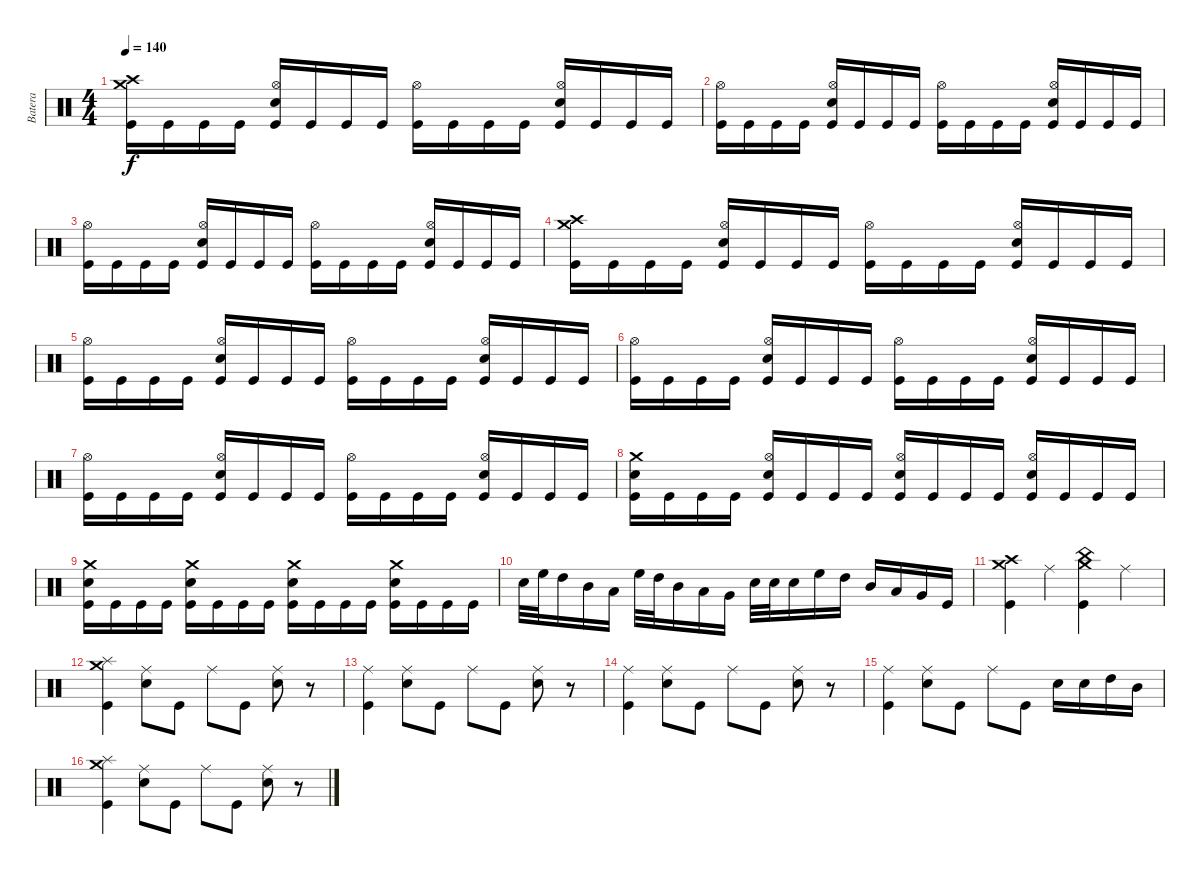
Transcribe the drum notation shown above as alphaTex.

\track ("Batera" "Batera") {instrument percussion}
\staff {score}
\articulation defaults
\ts (4 4)
\tempo 140
\clef neutral
\ks c
("Crash high (hit)" "Crash medium (hit)" "Kick (hit)").16{dy f} "Kick (hit)".16 "Kick (hit)".16 "Kick (hit)".16 ("Hi-Hat (open)" "Snare (hit) 2" "Kick (hit)").16 "Kick (hit)".16 "Kick (hit)".16 "Kick (hit)".16 ("Hi-Hat (open)" "Kick (hit)").16 "Kick (hit)".16 "Kick (hit)".16 "Kick (hit)".16 ("Hi-Hat (open)" "Snare (hit) 2" "Kick (hit)").16 "Kick (hit)".16 "Kick (hit)".16 "Kick (hit)".16 |
("Hi-Hat (open)" "Kick (hit)").16 "Kick (hit)".16 "Kick (hit)".16 "Kick (hit)".16 ("Hi-Hat (open)" "Snare (hit) 2" "Kick (hit)").16 "Kick (hit)".16 "Kick (hit)".16 "Kick (hit)".16 ("Hi-Hat (open)" "Kick (hit)").16 "Kick (hit)".16 "Kick (hit)".16 "Kick (hit)".16 ("Hi-Hat (open)" "Snare (hit) 2" "Kick (hit)").16 "Kick (hit)".16 "Kick (hit)".16 "Kick (hit)".16 |
("Hi-Hat (open)" "Kick (hit)").16 "Kick (hit)".16 "Kick (hit)".16 "Kick (hit)".16 ("Hi-Hat (open)" "Snare (hit) 2" "Kick (hit)").16 "Kick (hit)".16 "Kick (hit)".16 "Kick (hit)".16 ("Hi-Hat (open)" "Kick (hit)").16 "Kick (hit)".16 "Kick (hit)".16 "Kick (hit)".16 ("Hi-Hat (open)" "Snare (hit) 2" "Kick (hit)").16 "Kick (hit)".16 "Kick (hit)".16 "Kick (hit)".16 |
("Crash high (hit)" "Crash medium (hit)" "Kick (hit)").16 "Kick (hit)".16 "Kick (hit)".16 "Kick (hit)".16 ("Hi-Hat (open)" "Snare (hit) 2" "Kick (hit)").16 "Kick (hit)".16 "Kick (hit)".16 "Kick (hit)".16 ("Hi-Hat (open)" "Kick (hit)").16 "Kick (hit)".16 "Kick (hit)".16 "Kick (hit)".16 ("Hi-Hat (open)" "Snare (hit) 2" "Kick (hit)").16 "Kick (hit)".16 "Kick (hit)".16 "Kick (hit)".16 |
("Hi-Hat (open)" "Kick (hit)").16 "Kick (hit)".16 "Kick (hit)".16 "Kick (hit)".16 ("Hi-Hat (open)" "Snare (hit) 2" "Kick (hit)").16 "Kick (hit)".16 "Kick (hit)".16 "Kick (hit)".16 ("Hi-Hat (open)" "Kick (hit)").16 "Kick (hit)".16 "Kick (hit)".16 "Kick (hit)".16 ("Hi-Hat (open)" "Snare (hit) 2" "Kick (hit)").16 "Kick (hit)".16 "Kick (hit)".16 "Kick (hit)".16 |
("Hi-Hat (open)" "Kick (hit)").16 "Kick (hit)".16 "Kick (hit)".16 "Kick (hit)".16 ("Hi-Hat (open)" "Snare (hit) 2" "Kick (hit)").16 "Kick (hit)".16 "Kick (hit)".16 "Kick (hit)".16 ("Hi-Hat (open)" "Kick (hit)").16 "Kick (hit)".16 "Kick (hit)".16 "Kick (hit)".16 ("Hi-Hat (open)" "Snare (hit) 2" "Kick (hit)").16 "Kick (hit)".16 "Kick (hit)".16 "Kick (hit)".16 |
("Hi-Hat (open)" "Kick (hit)").16 "Kick (hit)".16 "Kick (hit)".16 "Kick (hit)".16 ("Hi-Hat (open)" "Snare (hit) 2" "Kick (hit)").16 "Kick (hit)".16 "Kick (hit)".16 "Kick (hit)".16 ("Hi-Hat (open)" "Kick (hit)").16 "Kick (hit)".16 "Kick (hit)".16 "Kick (hit)".16 ("Hi-Hat (open)" "Snare (hit) 2" "Kick (hit)").16 "Kick (hit)".16 "Kick (hit)".16 "Kick (hit)".16 |
("Crash medium (hit)" "Snare (hit) 2" "Kick (hit)").16 "Kick (hit)".16 "Kick (hit)".16 "Kick (hit)".16 ("Hi-Hat (open)" "Snare (hit) 2" "Kick (hit)").16 "Kick (hit)".16 "Kick (hit)".16 "Kick (hit)".16 ("Hi-Hat (open)" "Snare (hit) 2" "Kick (hit)").16 "Kick (hit)".16 "Kick (hit)".16 "Kick (hit)".16 ("Hi-Hat (open)" "Snare (hit) 2" "Kick (hit)").16 "Kick (hit)".16 "Kick (hit)".16 "Kick (hit)".16 |
("Crash medium (hit)" "Snare (hit) 2" "Kick (hit)").16 "Kick (hit)".16 "Kick (hit)".16 "Kick (hit)".16 ("Crash medium (hit)" "Snare (hit) 2" "Kick (hit)").16 "Kick (hit)".16 "Kick (hit)".16 "Kick (hit)".16 ("Crash medium (hit)" "Snare (hit) 2" "Kick (hit)").16 "Kick (hit)".16 "Kick (hit)".16 "Kick (hit)".16 ("Crash medium (hit)" "Snare (hit) 2" "Kick (hit)").16 "Kick (hit)".16 "Kick (hit)".16 "Kick (hit)".16 |
"Snare (hit) 2".32 "High Floor Tom (hit)".32 "High Tom (hit)".16 "Mid Tom (hit)".16 "Low Tom (hit)".16 "High Floor Tom (hit)".32 "High Tom (hit)".32 "Mid Tom (hit)".16 "Low Tom (hit)".16 "Very Low Tom (hit)".16 "Snare (hit) 2".32 "Snare (hit) 2".32 "Snare (hit) 2".16 "High Floor Tom (hit)".16 "High Tom (hit)".16 "Mid Tom (hit)".16 "Low Tom (hit)".16 "Very Low Tom (hit)".16 "Kick (hit)".16 |
("Crash medium (hit)" "Crash high (hit)" "Kick (hit)").4 "Ride (middle)".4 ("Crash medium (hit)" "China (hit)" "Kick (hit)").4 "Ride (middle)".4 |
("Splash (hit)" "Crash medium (hit)" "Kick (hit)").4 ("Ride (middle)" "Snare (hit) 2").8 "Kick (hit)".8 "Ride (middle)".8 "Kick (hit)".8 ("Ride (middle)" "Snare (hit) 2").8 r.8 |
("Ride (middle)" "Kick (hit)").4 ("Ride (middle)" "Snare (hit) 2").8 "Kick (hit)".8 "Ride (middle)".8 "Kick (hit)".8 ("Ride (middle)" "Snare (hit) 2").8 r.8 |
("Ride (middle)" "Kick (hit)").4 ("Ride (middle)" "Snare (hit) 2").8 "Kick (hit)".8 "Ride (middle)".8 "Kick (hit)".8 ("Ride (middle)" "Snare (hit) 2").8 r.8 |
("Ride (middle)" "Kick (hit)").4 ("Ride (middle)" "Snare (hit) 2").8 "Kick (hit)".8 "Ride (middle)".8 "Kick (hit)".8 "Snare (hit) 2".16 "Snare (hit) 2".16 "High Tom (hit)".16 "Mid Tom (hit)".16 |
("Splash (hit)" "Crash medium (hit)" "Kick (hit)").4 ("Ride (middle)" "Snare (hit) 2").8 "Kick (hit)".8 "Ride (middle)".8 "Kick (hit)".8 ("Ride (middle)" "Snare (hit) 2").8 r.8
